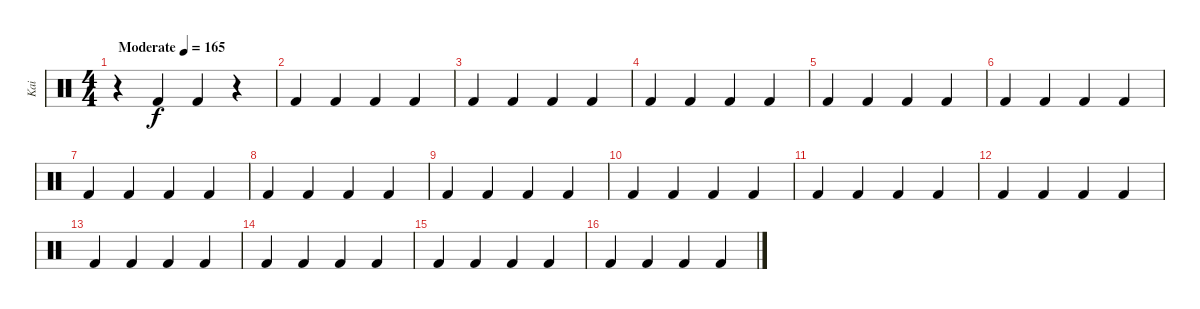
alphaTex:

\track ("Kai" "Kai") {instrument percussion}
\staff {score}
\articulation defaults
\ts (4 4)
\tempo (165 "Moderate")
\clef neutral
\ks c
r.4{dy f} "Kick (hit) 2".4 "Kick (hit) 2".4 r.4 |
"Kick (hit) 2".4 "Kick (hit) 2".4 "Kick (hit) 2".4 "Kick (hit) 2".4 |
"Kick (hit) 2".4 "Kick (hit) 2".4 "Kick (hit) 2".4 "Kick (hit) 2".4 |
"Kick (hit) 2".4 "Kick (hit) 2".4 "Kick (hit) 2".4 "Kick (hit) 2".4 |
"Kick (hit) 2".4 "Kick (hit) 2".4 "Kick (hit) 2".4 "Kick (hit) 2".4 |
"Kick (hit) 2".4 "Kick (hit) 2".4 "Kick (hit) 2".4 "Kick (hit) 2".4 |
"Kick (hit) 2".4 "Kick (hit) 2".4 "Kick (hit) 2".4 "Kick (hit) 2".4 |
"Kick (hit) 2".4 "Kick (hit) 2".4 "Kick (hit) 2".4 "Kick (hit) 2".4 |
"Kick (hit) 2".4 "Kick (hit) 2".4 "Kick (hit) 2".4 "Kick (hit) 2".4 |
"Kick (hit) 2".4 "Kick (hit) 2".4 "Kick (hit) 2".4 "Kick (hit) 2".4 |
"Kick (hit) 2".4 "Kick (hit) 2".4 "Kick (hit) 2".4 "Kick (hit) 2".4 |
"Kick (hit) 2".4 "Kick (hit) 2".4 "Kick (hit) 2".4 "Kick (hit) 2".4 |
"Kick (hit) 2".4 "Kick (hit) 2".4 "Kick (hit) 2".4 "Kick (hit) 2".4 |
"Kick (hit) 2".4 "Kick (hit) 2".4 "Kick (hit) 2".4 "Kick (hit) 2".4 |
"Kick (hit) 2".4 "Kick (hit) 2".4 "Kick (hit) 2".4 "Kick (hit) 2".4 |
"Kick (hit) 2".4 "Kick (hit) 2".4 "Kick (hit) 2".4 "Kick (hit) 2".4
